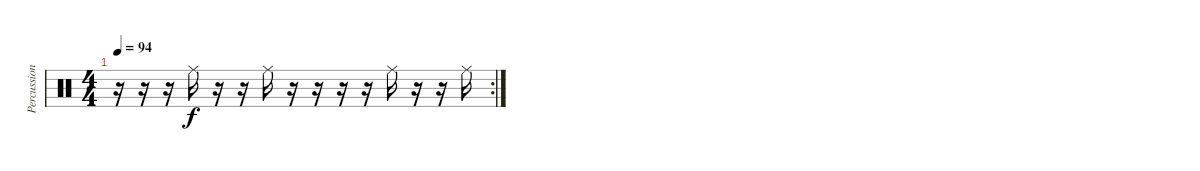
\track ("Percussion" "Percussion") {instrument percussion}
\staff {score}
\articulation defaults
\rc 2
\ts (4 4)
\tempo 94
\clef neutral
\ks c
r.16{dy f} r.16 r.16 "Ride (middle)".16 r.16 r.16 "Ride (middle)".16 r.16 r.16 r.16 r.16 "Ride (middle)".16 r.16 r.16 "Ride (middle)".16
